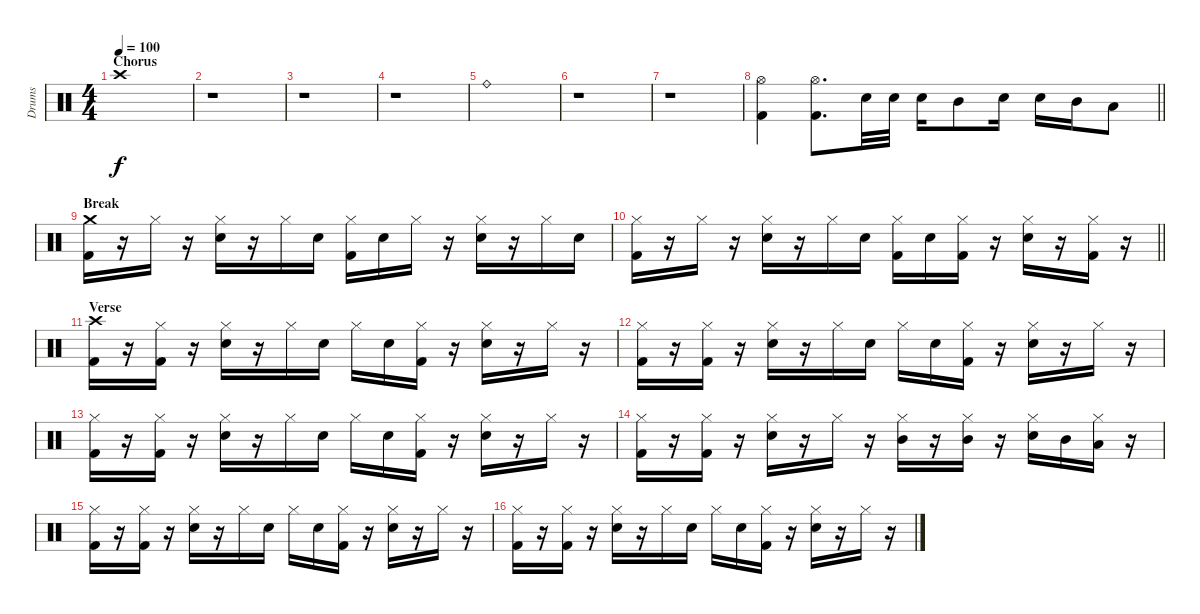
\track ("Drums" "Drums") {instrument percussion}
\staff {score}
\articulation defaults
\ts (4 4)
\section ("" "Chorus")
\tempo 100
\clef neutral
\ks c "Crash high (hit)".1{dy f}
|
r.1 |
r.1 |
r.1 |
"Ride (bell)".1 |
r.1 |
r.1 |
\barLineRight lightlight
("Hi-Hat (open)" "Kick (hit) 2").4 ("Hi-Hat (open)" "Kick (hit) 2").8{d} "Snare (hit) 2".32 "Snare (hit) 2".32 "Snare (hit) 2".16 "Mid Tom (hit)".8 "Snare (hit) 2".16 "Snare (hit) 2".16 "Mid Tom (hit)".16 "Low Tom (hit)".8 |
\section ("" "Break")
("Crash medium (hit)" "Kick (hit) 2").16 r.16 "Hi-Hat (closed)".16 r.16 ("Hi-Hat (closed)" "Snare (hit) 2").16 r.16 "Hi-Hat (closed)".16 "Snare (hit) 2".16 ("Hi-Hat (closed)" "Kick (hit) 2").16 "Snare (hit) 2".16 "Hi-Hat (closed)".16 r.16 ("Hi-Hat (closed)" "Snare (hit) 2").16 r.16 "Hi-Hat (closed)".16 "Snare (hit) 2".16 |
\barLineRight lightlight
("Hi-Hat (closed)" "Kick (hit) 2").16 r.16 "Hi-Hat (closed)".16 r.16 ("Hi-Hat (closed)" "Snare (hit) 2").16 r.16 "Hi-Hat (closed)".16 "Snare (hit) 2".16 ("Hi-Hat (closed)" "Kick (hit) 2").16 "Snare (hit) 2".16 ("Hi-Hat (closed)" "Kick (hit) 2").16 r.16 ("Hi-Hat (closed)" "Snare (hit) 2").16 r.16 ("Hi-Hat (closed)" "Kick (hit) 2").16 r.16 |
\section ("" "Verse")
("Crash high (hit)" "Kick (hit) 2").16 r.16 ("Hi-Hat (closed)" "Kick (hit) 2").16 r.16 ("Hi-Hat (closed)" "Snare (hit) 2").16 r.16 "Hi-Hat (closed)".16 "Snare (hit) 2".16 "Hi-Hat (closed)".16 "Snare (hit) 2".16 ("Hi-Hat (closed)" "Kick (hit) 2").16 r.16 ("Hi-Hat (closed)" "Snare (hit) 2").16 r.16 "Hi-Hat (closed)".16 r.16 |
("Hi-Hat (closed)" "Kick (hit) 2").16 r.16 ("Hi-Hat (closed)" "Kick (hit) 2").16 r.16 ("Hi-Hat (closed)" "Snare (hit) 2").16 r.16 "Hi-Hat (closed)".16 "Snare (hit) 2".16 "Hi-Hat (closed)".16 "Snare (hit) 2".16 ("Hi-Hat (closed)" "Kick (hit) 2").16 r.16 ("Hi-Hat (closed)" "Snare (hit) 2").16 r.16 "Hi-Hat (closed)".16 r.16 |
("Hi-Hat (closed)" "Kick (hit) 2").16 r.16 ("Hi-Hat (closed)" "Kick (hit) 2").16 r.16 ("Hi-Hat (closed)" "Snare (hit) 2").16 r.16 "Hi-Hat (closed)".16 "Snare (hit) 2".16 "Hi-Hat (closed)".16 "Snare (hit) 2".16 ("Hi-Hat (closed)" "Kick (hit) 2").16 r.16 ("Hi-Hat (closed)" "Snare (hit) 2").16 r.16 "Hi-Hat (closed)".16 r.16 |
("Hi-Hat (closed)" "Kick (hit) 2").16 r.16 ("Hi-Hat (closed)" "Kick (hit) 2").16 r.16 ("Hi-Hat (closed)" "Snare (hit) 2").16 r.16 "Hi-Hat (closed)".16 r.16 ("Hi-Hat (closed)" "Mid Tom (hit)").16 r.16 ("Hi-Hat (closed)" "Mid Tom (hit)").16 r.16 ("Hi-Hat (closed)" "Snare (hit) 2").16 "Mid Tom (hit)".16 ("Hi-Hat (closed)" "Low Tom (hit)").16 r.16 |
("Hi-Hat (closed)" "Kick (hit) 2").16 r.16 ("Hi-Hat (closed)" "Kick (hit) 2").16 r.16 ("Hi-Hat (closed)" "Snare (hit) 2").16 r.16 "Hi-Hat (closed)".16 "Snare (hit) 2".16 "Hi-Hat (closed)".16 "Snare (hit) 2".16 ("Hi-Hat (closed)" "Kick (hit) 2").16 r.16 ("Hi-Hat (closed)" "Snare (hit) 2").16 r.16 "Hi-Hat (closed)".16 r.16 |
("Hi-Hat (closed)" "Kick (hit) 2").16 r.16 ("Hi-Hat (closed)" "Kick (hit) 2").16 r.16 ("Hi-Hat (closed)" "Snare (hit) 2").16 r.16 "Hi-Hat (closed)".16 "Snare (hit) 2".16 "Hi-Hat (closed)".16 "Snare (hit) 2".16 ("Hi-Hat (closed)" "Kick (hit) 2").16 r.16 ("Hi-Hat (closed)" "Snare (hit) 2").16 r.16 "Hi-Hat (closed)".16 r.16
